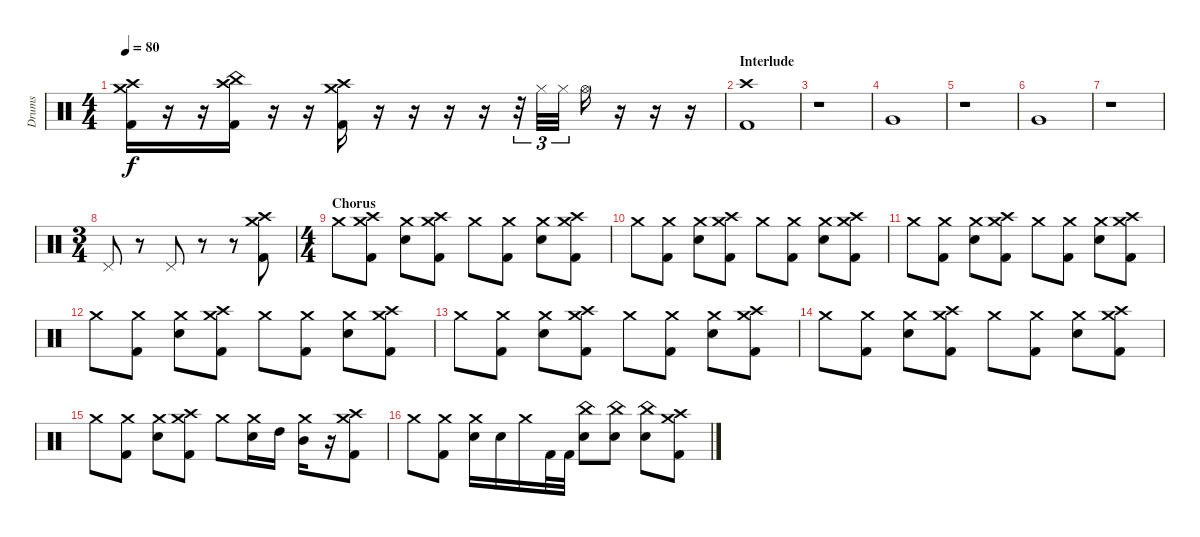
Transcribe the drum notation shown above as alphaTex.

\track ("Drums" "Drums") {instrument percussion}
\staff {score}
\articulation defaults
\ts (4 4)
\tempo 80
\clef neutral
\ks c
("Crash high (hit)" "Crash medium (hit)" "Kick (hit) 2").16{dy f} r.16 r.16 ("Crash high (hit)" "China (hit)" "Kick (hit) 2").16 r.16 r.16 ("Crash high (hit)" "Crash medium (hit)" "Kick (hit) 2").16 r.16 r.16 r.16 r.16 r.32{tu (3 2)} "Hi-Hat (closed)".32{tu (3 2)} "Hi-Hat (closed)".32{tu (3 2)} "Hi-Hat (open)".16 r.16 r.16 r.16 |
\section ("" "Interlude")
("Crash high (hit)" "Kick (hit) 2").1 |
r.1 |
"Very Low Tom (hit)".1 |
r.1 |
"Very Low Tom (hit)".1 |
r.1 |
\ts (3 4)
"Pedal Hi-Hat (hit)".8 r.8 "Pedal Hi-Hat (hit)".8 r.8 r.8 ("Crash high (hit)" "Crash medium (hit)" "Kick (hit) 2").8 |
\ts (4 4)
\section ("" "Chorus")
"Crash medium (hit)".8 ("Crash medium (hit)" "Crash high (hit)" "Kick (hit) 2").8 ("Crash medium (hit)" "Electric Snare (hit)").8 ("Crash medium (hit)" "Crash high (hit)" "Kick (hit) 2").8 "Crash medium (hit)".8 ("Crash medium (hit)" "Kick (hit) 2").8 ("Crash medium (hit)" "Electric Snare (hit)").8 ("Crash medium (hit)" "Crash high (hit)" "Kick (hit) 2").8 |
"Crash medium (hit)".8 ("Crash medium (hit)" "Kick (hit) 2").8 ("Crash medium (hit)" "Electric Snare (hit)").8 ("Crash medium (hit)" "Crash high (hit)" "Kick (hit) 2").8 "Crash medium (hit)".8 ("Crash medium (hit)" "Kick (hit) 2").8 ("Crash medium (hit)" "Electric Snare (hit)").8 ("Crash medium (hit)" "Crash high (hit)" "Kick (hit) 2").8 |
"Crash medium (hit)".8 ("Crash medium (hit)" "Kick (hit) 2").8 ("Crash medium (hit)" "Electric Snare (hit)").8 ("Crash medium (hit)" "Crash high (hit)" "Kick (hit) 2").8 "Crash medium (hit)".8 ("Crash medium (hit)" "Kick (hit) 2").8 ("Crash medium (hit)" "Electric Snare (hit)").8 ("Crash medium (hit)" "Crash high (hit)" "Kick (hit) 2").8 |
"Crash medium (hit)".8 ("Crash medium (hit)" "Kick (hit) 2").8 ("Crash medium (hit)" "Electric Snare (hit)").8 ("Crash medium (hit)" "Crash high (hit)" "Kick (hit) 2").8 "Crash medium (hit)".8 ("Crash medium (hit)" "Kick (hit) 2").8 ("Crash medium (hit)" "Electric Snare (hit)").8 ("Crash medium (hit)" "Crash high (hit)" "Kick (hit) 2").8 |
"Crash medium (hit)".8 ("Crash medium (hit)" "Kick (hit) 2").8 ("Crash medium (hit)" "Electric Snare (hit)").8 ("Crash medium (hit)" "Crash high (hit)" "Kick (hit) 2").8 "Crash medium (hit)".8 ("Crash medium (hit)" "Kick (hit) 2").8 ("Crash medium (hit)" "Electric Snare (hit)").8 ("Crash medium (hit)" "Crash high (hit)" "Kick (hit) 2").8 |
"Crash medium (hit)".8 ("Crash medium (hit)" "Kick (hit) 2").8 ("Crash medium (hit)" "Electric Snare (hit)").8 ("Crash medium (hit)" "Crash high (hit)" "Kick (hit) 2").8 "Crash medium (hit)".8 ("Crash medium (hit)" "Kick (hit) 2").8 ("Crash medium (hit)" "Electric Snare (hit)").8 ("Crash medium (hit)" "Crash high (hit)" "Kick (hit) 2").8 |
"Crash medium (hit)".8 ("Crash medium (hit)" "Kick (hit) 2").8 ("Crash medium (hit)" "Electric Snare (hit)").8 ("Crash medium (hit)" "Crash high (hit)" "Kick (hit) 2").8 "Crash medium (hit)".8 ("Crash medium (hit)" "Electric Snare (hit)").16 "High Tom (hit)".16 ("Crash medium (hit)" "Mid Tom (hit)").16 r.16 ("Crash medium (hit)" "Crash high (hit)" "Kick (hit) 2").8 |
"Crash medium (hit)".8 ("Crash medium (hit)" "Kick (hit) 2").8 ("Crash medium (hit)" "Electric Snare (hit)").16 "Electric Snare (hit)".16 "Crash medium (hit)".16 "Kick (hit) 2".32 "Kick (hit) 2".32 ("China (hit)" "Electric Snare (hit)").8 ("China (hit)" "Electric Snare (hit)").8 ("China (hit)" "Electric Snare (hit)").8 ("Crash medium (hit)" "Crash high (hit)" "Kick (hit) 2").8
